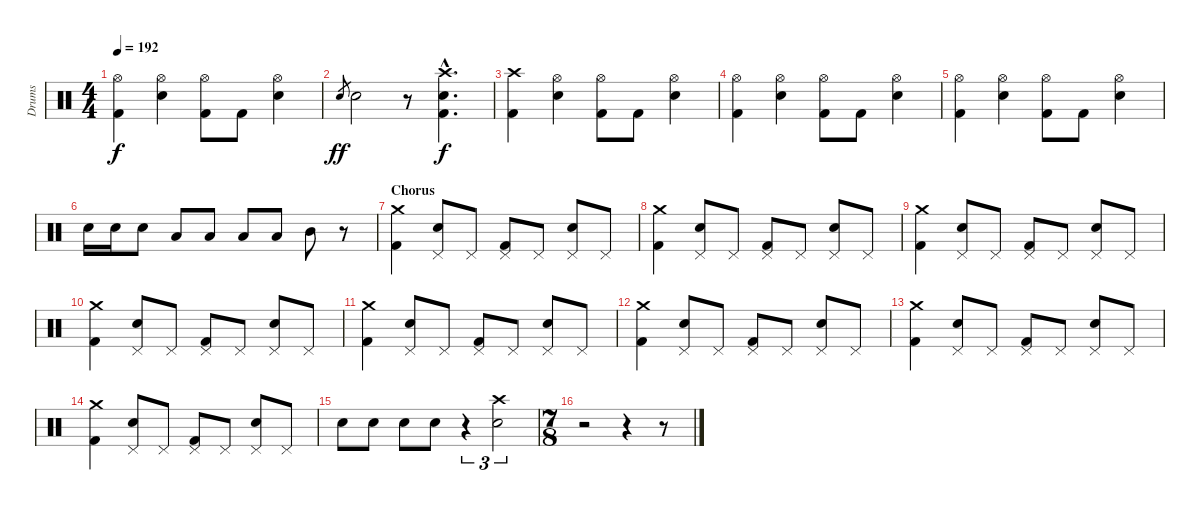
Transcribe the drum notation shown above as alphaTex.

\track ("Drums" "Drums") {instrument percussion}
\staff {score}
\articulation defaults
\ts (4 4)
\tempo 192
\clef neutral
\ks c
("Hi-Hat (open)" "Kick (hit) 2").4{dy f} ("Hi-Hat (open)" "Electric Snare (hit)").4 ("Hi-Hat (open)" "Kick (hit) 2").8 "Kick (hit) 2".8 ("Hi-Hat (open)" "Electric Snare (hit)").4 |
"Electric Snare (hit)".8{gr dy ff} "Electric Snare (hit)".2 r.8 ("Crash high (hit)"{hac} "Electric Snare (hit)"{hac} "Kick (hit) 2"{hac}).4{d dy f} |
("Crash high (hit)" "Kick (hit) 2").4 ("Hi-Hat (open)" "Electric Snare (hit)").4 ("Hi-Hat (open)" "Kick (hit) 2").8 "Kick (hit) 2".8 ("Hi-Hat (open)" "Electric Snare (hit)").4 |
("Hi-Hat (open)" "Kick (hit) 2").4 ("Hi-Hat (open)" "Electric Snare (hit)").4 ("Hi-Hat (open)" "Kick (hit) 2").8 "Kick (hit) 2".8 ("Hi-Hat (open)" "Electric Snare (hit)").4 |
("Hi-Hat (open)" "Kick (hit) 2").4 ("Hi-Hat (open)" "Electric Snare (hit)").4 ("Hi-Hat (open)" "Kick (hit) 2").8 "Kick (hit) 2".8 ("Hi-Hat (open)" "Electric Snare (hit)").4 |
"Electric Snare (hit)".16 "Electric Snare (hit)".16 "Electric Snare (hit)".8 "Low Tom (hit)".8 "Low Tom (hit)".8 "Low Tom (hit)".8 "Low Tom (hit)".8 "Mid Tom (hit)".8 r.8 |
\section ("" "Chorus")
("Crash medium (hit)" "Kick (hit) 2").4 ("Pedal Hi-Hat (hit)" "Electric Snare (hit)").8 "Pedal Hi-Hat (hit)".8 ("Pedal Hi-Hat (hit)" "Kick (hit) 2").8 "Pedal Hi-Hat (hit)".8 ("Pedal Hi-Hat (hit)" "Electric Snare (hit)").8 "Pedal Hi-Hat (hit)".8 |
("Crash medium (hit)" "Kick (hit) 2").4 ("Pedal Hi-Hat (hit)" "Electric Snare (hit)").8 "Pedal Hi-Hat (hit)".8 ("Pedal Hi-Hat (hit)" "Kick (hit) 2").8 "Pedal Hi-Hat (hit)".8 ("Pedal Hi-Hat (hit)" "Electric Snare (hit)").8 "Pedal Hi-Hat (hit)".8 |
("Crash medium (hit)" "Kick (hit) 2").4 ("Pedal Hi-Hat (hit)" "Electric Snare (hit)").8 "Pedal Hi-Hat (hit)".8 ("Pedal Hi-Hat (hit)" "Kick (hit) 2").8 "Pedal Hi-Hat (hit)".8 ("Pedal Hi-Hat (hit)" "Electric Snare (hit)").8 "Pedal Hi-Hat (hit)".8 |
("Crash medium (hit)" "Kick (hit) 2").4 ("Pedal Hi-Hat (hit)" "Electric Snare (hit)").8 "Pedal Hi-Hat (hit)".8 ("Pedal Hi-Hat (hit)" "Kick (hit) 2").8 "Pedal Hi-Hat (hit)".8 ("Pedal Hi-Hat (hit)" "Electric Snare (hit)").8 "Pedal Hi-Hat (hit)".8 |
("Crash medium (hit)" "Kick (hit) 2").4 ("Pedal Hi-Hat (hit)" "Electric Snare (hit)").8 "Pedal Hi-Hat (hit)".8 ("Pedal Hi-Hat (hit)" "Kick (hit) 2").8 "Pedal Hi-Hat (hit)".8 ("Pedal Hi-Hat (hit)" "Electric Snare (hit)").8 "Pedal Hi-Hat (hit)".8 |
("Crash medium (hit)" "Kick (hit) 2").4 ("Pedal Hi-Hat (hit)" "Electric Snare (hit)").8 "Pedal Hi-Hat (hit)".8 ("Pedal Hi-Hat (hit)" "Kick (hit) 2").8 "Pedal Hi-Hat (hit)".8 ("Pedal Hi-Hat (hit)" "Electric Snare (hit)").8 "Pedal Hi-Hat (hit)".8 |
("Crash medium (hit)" "Kick (hit) 2").4 ("Pedal Hi-Hat (hit)" "Electric Snare (hit)").8 "Pedal Hi-Hat (hit)".8 ("Pedal Hi-Hat (hit)" "Kick (hit) 2").8 "Pedal Hi-Hat (hit)".8 ("Pedal Hi-Hat (hit)" "Electric Snare (hit)").8 "Pedal Hi-Hat (hit)".8 |
("Crash medium (hit)" "Kick (hit) 2").4 ("Pedal Hi-Hat (hit)" "Electric Snare (hit)").8 "Pedal Hi-Hat (hit)".8 ("Pedal Hi-Hat (hit)" "Kick (hit) 2").8 "Pedal Hi-Hat (hit)".8 ("Pedal Hi-Hat (hit)" "Electric Snare (hit)").8 "Pedal Hi-Hat (hit)".8 |
"Electric Snare (hit)".8 "Electric Snare (hit)".8 "Electric Snare (hit)".8 "Electric Snare (hit)".8 r.4{tu (3 2)} ("Crash high (hit)" "Electric Snare (hit)").2{tu (3 2)} |
\ts (7 8)
r.2 r.4 r.8
